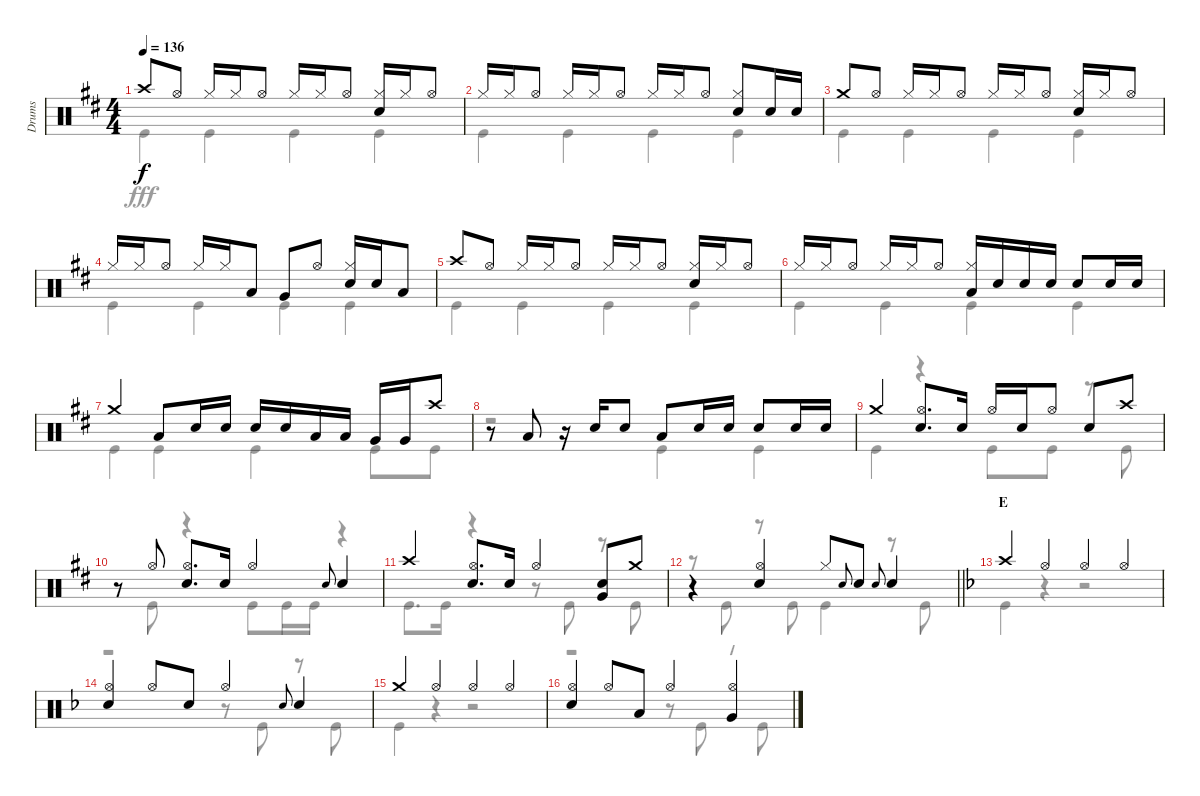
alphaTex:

\track ("Drums" "Drums") {instrument percussion}
\staff {score}
\articulation defaults
\voice
\ts (4 4)
\tempo 136
\clef neutral
\ks d "Crash high (hit)".8{dy f} "Hi-Hat (open)".8 "Hi-Hat (closed)".16 "Hi-Hat (closed)".16 "Hi-Hat (open)".8 "Hi-Hat (closed)".16 "Hi-Hat (closed)".16 "Hi-Hat (open)".8
("Hi-Hat (closed)" "Snare (hit) 2").16 "Hi-Hat (closed)".16 "Hi-Hat (open)".8 |
"Hi-Hat (closed)".16 "Hi-Hat (closed)".16 "Hi-Hat (open)".8 "Hi-Hat (closed)".16 "Hi-Hat (closed)".16 "Hi-Hat (open)".8 "Hi-Hat (closed)".16 "Hi-Hat (closed)".16 "Hi-Hat (open)".8 ("Hi-Hat (closed)" "Snare (hit) 2").8 "Snare (hit) 2".16 "Snare (hit) 2".16 |
"Crash medium (hit)".8 "Hi-Hat (open)".8 "Hi-Hat (closed)".16 "Hi-Hat (closed)".16 "Hi-Hat (open)".8 "Hi-Hat (closed)".16 "Hi-Hat (closed)".16 "Hi-Hat (open)".8 ("Hi-Hat (closed)" "Snare (hit) 2").16 "Hi-Hat (closed)".16 "Hi-Hat (open)".8 |
"Hi-Hat (closed)".16 "Hi-Hat (closed)".16 "Hi-Hat (open)".8 "Hi-Hat (closed)".16 "Hi-Hat (closed)".16 "Low Tom (hit)".8 "Very Low Tom (hit)".8 "Hi-Hat (open)".8 ("Hi-Hat (closed)" "Snare (hit) 2").16 "Snare (hit) 2".16 "Low Tom (hit)".8 |
"Crash high (hit)".8 "Hi-Hat (open)".8 "Hi-Hat (closed)".16 "Hi-Hat (closed)".16 "Hi-Hat (open)".8 "Hi-Hat (closed)".16 "Hi-Hat (closed)".16 "Hi-Hat (open)".8 ("Hi-Hat (closed)" "Snare (hit) 2").16 "Hi-Hat (closed)".16 "Hi-Hat (open)".8 |
"Hi-Hat (closed)".16 "Hi-Hat (closed)".16 "Hi-Hat (open)".8 "Hi-Hat (closed)".16 "Hi-Hat (closed)".16 "Hi-Hat (open)".8 ("Hi-Hat (closed)" "Low Tom (hit)").16 "Snare (hit) 2".16 "Snare (hit) 2".16 "Snare (hit) 2".16 "Snare (hit) 2".8 "Snare (hit) 2".16 "Snare (hit) 2".16 |
"Crash medium (hit)".4 "Low Tom (hit)".8 "Snare (hit) 2".16 "Snare (hit) 2".16 "Snare (hit) 2".16 "Snare (hit) 2".16 "Low Tom (hit)".16 "Low Tom (hit)".16 "Very Low Tom (hit)".16 "Very Low Tom (hit)".16 "Crash high (hit)".8 |
r.8 "Low Tom (hit)".8 r.16 "Snare (hit) 2".16 "Snare (hit) 2".8 "Low Tom (hit)".8 "Snare (hit) 2".16 "Snare (hit) 2".16 "Snare (hit) 2".8 "Snare (hit) 2".16 "Snare (hit) 2".16 |
"Crash medium (hit)".4 ("Hi-Hat (open)" "Snare (hit) 2").8{d} "Snare (hit) 2".16 "Hi-Hat (open)".16 "Snare (hit) 2".16 "Hi-Hat (open)".8 "Snare (hit) 2".8 "Crash high (hit)".8 |
r.8 "Hi-Hat (open)".8 ("Hi-Hat (open)" "Snare (hit) 2").8{d} "Snare (hit) 2".16 "Hi-Hat (open)".4 "Snare (hit) 2".8{gr onbeat} "Snare (hit) 2".4 |
"Crash high (hit)".4 ("Hi-Hat (open)" "Snare (hit) 2").8{d} "Snare (hit) 2".16 "Hi-Hat (open)".4 ("Snare (hit) 2" "Very Low Tom (hit)").8 "Crash medium (hit)".8 |
\barLineRight lightlight
r.4 ("Hi-Hat (open)" "Snare (hit) 2").4 "Hi-Hat (closed)".8 "Snare (hit) 2".8{gr onbeat} "Snare (hit) 2".8 "Snare (hit) 2".8{gr onbeat} "Snare (hit) 2".4 |
\section ("" "E")
\ks f "Crash high (hit)".4 "Hi-Hat (open)".4 "Hi-Hat (open)".4 "Hi-Hat (open)".4
|
("Hi-Hat (open)" "Snare (hit) 2").4 "Hi-Hat (open)".8 "Snare (hit) 2".8 "Hi-Hat (open)".4 "Snare (hit) 2".8{gr onbeat} "Snare (hit) 2".4 |
"Crash medium (hit)".4 "Hi-Hat (open)".4 "Hi-Hat (open)".4 "Hi-Hat (open)".4 |
("Hi-Hat (open)" "Snare (hit) 2").4 "Hi-Hat (open)".8 "Low Tom (hit)".8 "Hi-Hat (open)".4 ("Hi-Hat (open)" "Very Low Tom (hit)").4
\voice
\clef neutral
\ottava regular
\simile none
\ks d "Kick (hit)".4{dy fff} "Kick (hit)".4 "Kick (hit)".4 "Kick (hit)".4
|
"Kick (hit)".4 "Kick (hit)".4 "Kick (hit)".4 "Kick (hit)".4 |
"Kick (hit)".4 "Kick (hit)".4 "Kick (hit)".4 "Kick (hit)".4 |
"Kick (hit)".4 "Kick (hit)".4 "Kick (hit)".4 "Kick (hit)".4 |
"Kick (hit)".4 "Kick (hit)".4 "Kick (hit)".4 "Kick (hit)".4 |
"Kick (hit)".4 "Kick (hit)".4 "Kick (hit)".4 "Kick (hit)".4 |
"Kick (hit)".4 "Kick (hit)".4 "Kick (hit)".4 "Kick (hit)".8 "Kick (hit)".8 |
r.2 "Kick (hit)".4 "Kick (hit)".4 |
"Kick (hit)".4 r.4 "Kick (hit)".8 "Kick (hit)".8 r.8 "Kick (hit)".8 |
r.8 "Kick (hit)".8 r.4 "Kick (hit)".8 "Kick (hit)".16 "Kick (hit)".16 r.4 |
"Kick (hit)".8{d} "Kick (hit)".16 r.4 r.8 "Kick (hit)".8 r.8 "Kick (hit)".8 |
\barLineRight lightlight
r.8 "Kick (hit)".8 r.8 "Kick (hit)".8 "Kick (hit)".4 r.8 "Kick (hit)".8 |
\ks f "Kick (hit)".4
r.4 r.2 |
r.2 r.8 "Kick (hit)".8 r.8 "Kick (hit)".8 |
"Kick (hit)".4 r.4 r.2 |
r.2 r.8 "Kick (hit)".8 r.8 "Kick (hit)".8
